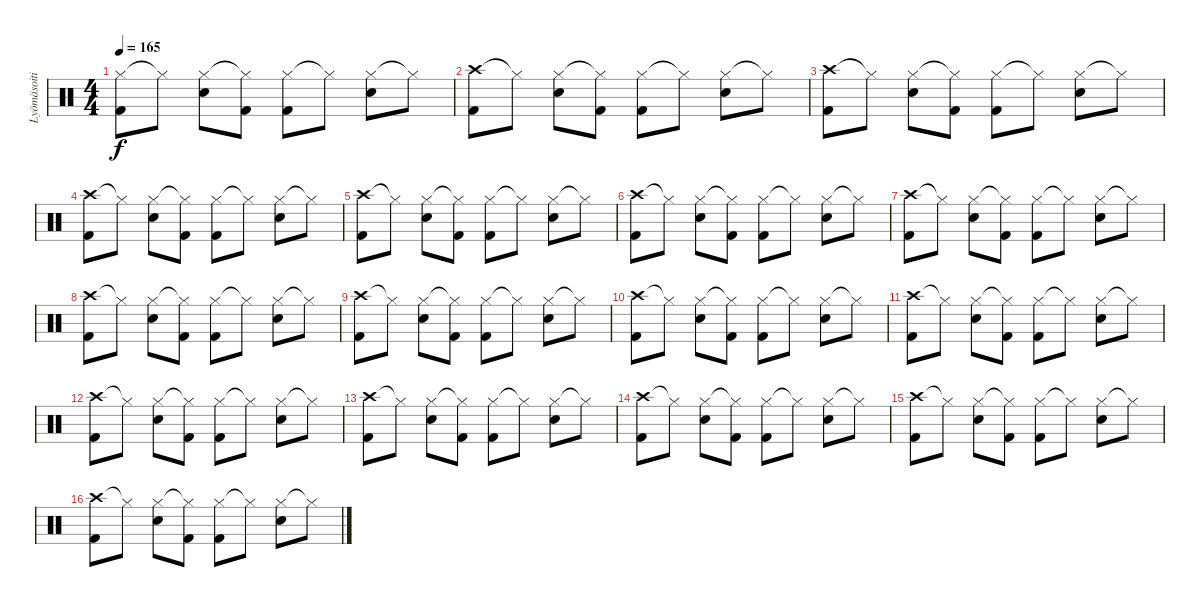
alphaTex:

\track ("Lyömäsoitin" "Lyömäsoiti") {instrument percussion}
\staff {score}
\articulation defaults
\ts (4 4)
\tempo 165
\clef neutral
\ks c
("Hi-Hat (closed)" "Kick (hit) 2").8{dy f} "Hi-Hat (closed)"{t}.8 ("Hi-Hat (closed)" "Snare (hit) 2").8 ("Hi-Hat (closed)"{t} "Kick (hit) 2").8 ("Hi-Hat (closed)" "Kick (hit) 2").8 "Hi-Hat (closed)"{t}.8 ("Hi-Hat (closed)" "Snare (hit) 2").8 "Hi-Hat (closed)"{t}.8 |
("Crash high (hit)" "Kick (hit) 2").8 "Hi-Hat (closed)"{t}.8 ("Hi-Hat (closed)" "Snare (hit) 2").8 ("Hi-Hat (closed)"{t} "Kick (hit) 2").8 ("Hi-Hat (closed)" "Kick (hit) 2").8 "Hi-Hat (closed)"{t}.8 ("Hi-Hat (closed)" "Snare (hit) 2").8 "Hi-Hat (closed)"{t}.8 |
("Crash high (hit)" "Kick (hit) 2").8 "Hi-Hat (closed)"{t}.8 ("Hi-Hat (closed)" "Snare (hit) 2").8 ("Hi-Hat (closed)"{t} "Kick (hit) 2").8 ("Hi-Hat (closed)" "Kick (hit) 2").8 "Hi-Hat (closed)"{t}.8 ("Hi-Hat (closed)" "Snare (hit) 2").8 "Hi-Hat (closed)"{t}.8 |
("Crash high (hit)" "Kick (hit) 2").8 "Hi-Hat (closed)"{t}.8 ("Hi-Hat (closed)" "Snare (hit) 2").8 ("Hi-Hat (closed)"{t} "Kick (hit) 2").8 ("Hi-Hat (closed)" "Kick (hit) 2").8 "Hi-Hat (closed)"{t}.8 ("Hi-Hat (closed)" "Snare (hit) 2").8 "Hi-Hat (closed)"{t}.8 |
("Crash high (hit)" "Kick (hit) 2").8 "Hi-Hat (closed)"{t}.8 ("Hi-Hat (closed)" "Snare (hit) 2").8 ("Hi-Hat (closed)"{t} "Kick (hit) 2").8 ("Hi-Hat (closed)" "Kick (hit) 2").8 "Hi-Hat (closed)"{t}.8 ("Hi-Hat (closed)" "Snare (hit) 2").8 "Hi-Hat (closed)"{t}.8 |
("Crash high (hit)" "Kick (hit) 2").8 "Hi-Hat (closed)"{t}.8 ("Hi-Hat (closed)" "Snare (hit) 2").8 ("Hi-Hat (closed)"{t} "Kick (hit) 2").8 ("Hi-Hat (closed)" "Kick (hit) 2").8 "Hi-Hat (closed)"{t}.8 ("Hi-Hat (closed)" "Snare (hit) 2").8 "Hi-Hat (closed)"{t}.8 |
("Crash high (hit)" "Kick (hit) 2").8 "Hi-Hat (closed)"{t}.8 ("Hi-Hat (closed)" "Snare (hit) 2").8 ("Hi-Hat (closed)"{t} "Kick (hit) 2").8 ("Hi-Hat (closed)" "Kick (hit) 2").8 "Hi-Hat (closed)"{t}.8 ("Hi-Hat (closed)" "Snare (hit) 2").8 "Hi-Hat (closed)"{t}.8 |
("Crash high (hit)" "Kick (hit) 2").8 "Hi-Hat (closed)"{t}.8 ("Hi-Hat (closed)" "Snare (hit) 2").8 ("Hi-Hat (closed)"{t} "Kick (hit) 2").8 ("Hi-Hat (closed)" "Kick (hit) 2").8 "Hi-Hat (closed)"{t}.8 ("Hi-Hat (closed)" "Snare (hit) 2").8 "Hi-Hat (closed)"{t}.8 |
("Crash high (hit)" "Kick (hit) 2").8 "Hi-Hat (closed)"{t}.8 ("Hi-Hat (closed)" "Snare (hit) 2").8 ("Hi-Hat (closed)"{t} "Kick (hit) 2").8 ("Hi-Hat (closed)" "Kick (hit) 2").8 "Hi-Hat (closed)"{t}.8 ("Hi-Hat (closed)" "Snare (hit) 2").8 "Hi-Hat (closed)"{t}.8 |
("Crash high (hit)" "Kick (hit) 2").8 "Hi-Hat (closed)"{t}.8 ("Hi-Hat (closed)" "Snare (hit) 2").8 ("Hi-Hat (closed)"{t} "Kick (hit) 2").8 ("Hi-Hat (closed)" "Kick (hit) 2").8 "Hi-Hat (closed)"{t}.8 ("Hi-Hat (closed)" "Snare (hit) 2").8 "Hi-Hat (closed)"{t}.8 |
("Crash high (hit)" "Kick (hit) 2").8 "Hi-Hat (closed)"{t}.8 ("Hi-Hat (closed)" "Snare (hit) 2").8 ("Hi-Hat (closed)"{t} "Kick (hit) 2").8 ("Hi-Hat (closed)" "Kick (hit) 2").8 "Hi-Hat (closed)"{t}.8 ("Hi-Hat (closed)" "Snare (hit) 2").8 "Hi-Hat (closed)"{t}.8 |
("Crash high (hit)" "Kick (hit) 2").8 "Hi-Hat (closed)"{t}.8 ("Hi-Hat (closed)" "Snare (hit) 2").8 ("Hi-Hat (closed)"{t} "Kick (hit) 2").8 ("Hi-Hat (closed)" "Kick (hit) 2").8 "Hi-Hat (closed)"{t}.8 ("Hi-Hat (closed)" "Snare (hit) 2").8 "Hi-Hat (closed)"{t}.8 |
("Crash high (hit)" "Kick (hit) 2").8 "Hi-Hat (closed)"{t}.8 ("Hi-Hat (closed)" "Snare (hit) 2").8 ("Hi-Hat (closed)"{t} "Kick (hit) 2").8 ("Hi-Hat (closed)" "Kick (hit) 2").8 "Hi-Hat (closed)"{t}.8 ("Hi-Hat (closed)" "Snare (hit) 2").8 "Hi-Hat (closed)"{t}.8 |
("Crash high (hit)" "Kick (hit) 2").8 "Hi-Hat (closed)"{t}.8 ("Hi-Hat (closed)" "Snare (hit) 2").8 ("Hi-Hat (closed)"{t} "Kick (hit) 2").8 ("Hi-Hat (closed)" "Kick (hit) 2").8 "Hi-Hat (closed)"{t}.8 ("Hi-Hat (closed)" "Snare (hit) 2").8 "Hi-Hat (closed)"{t}.8 |
("Crash high (hit)" "Kick (hit) 2").8 "Hi-Hat (closed)"{t}.8 ("Hi-Hat (closed)" "Snare (hit) 2").8 ("Hi-Hat (closed)"{t} "Kick (hit) 2").8 ("Hi-Hat (closed)" "Kick (hit) 2").8 "Hi-Hat (closed)"{t}.8 ("Hi-Hat (closed)" "Snare (hit) 2").8 "Hi-Hat (closed)"{t}.8 |
("Crash high (hit)" "Kick (hit) 2").8 "Hi-Hat (closed)"{t}.8 ("Hi-Hat (closed)" "Snare (hit) 2").8 ("Hi-Hat (closed)"{t} "Kick (hit) 2").8 ("Hi-Hat (closed)" "Kick (hit) 2").8 "Hi-Hat (closed)"{t}.8 ("Hi-Hat (closed)" "Snare (hit) 2").8 "Hi-Hat (closed)"{t}.8
